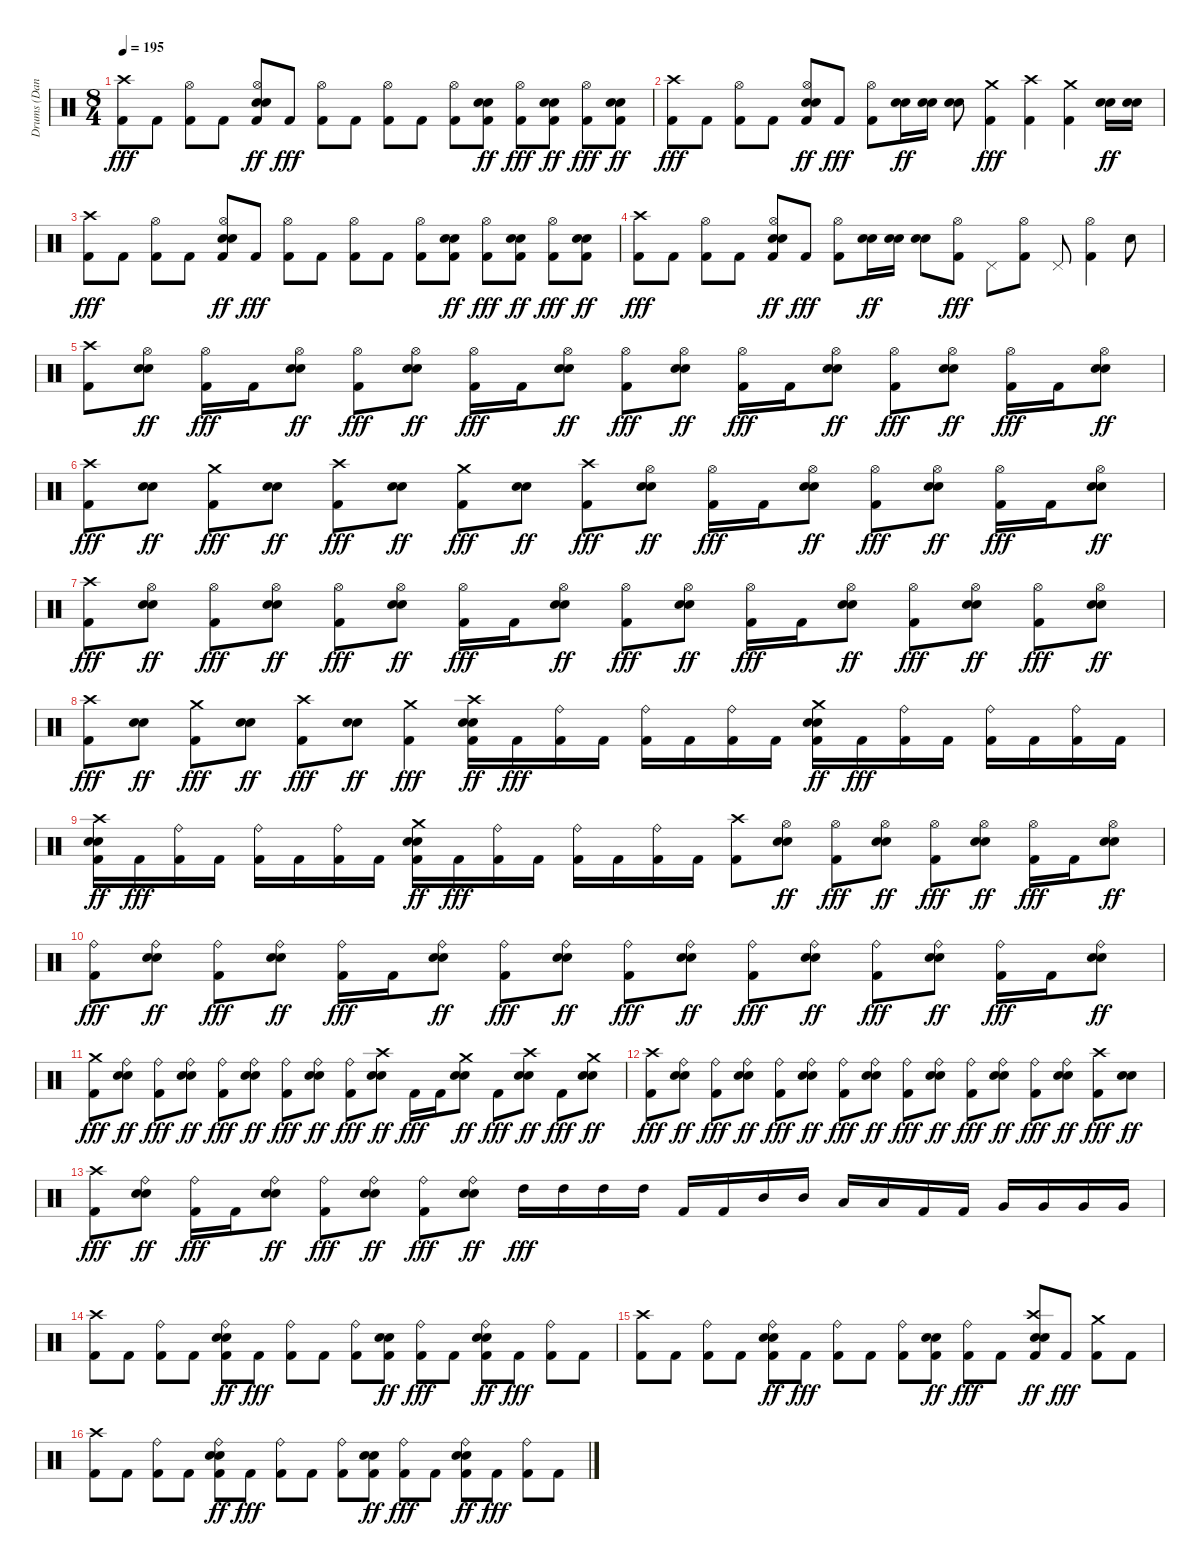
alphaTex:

\track ("Drums (Dan Zimmermann)" "Drums (Dan") {instrument percussion}
\staff {score}
\articulation defaults
\ts (8 4)
\tempo 195
\clef neutral
\ks c
("Kick (hit) 2" "Crash high (hit)").8{dy fff} "Kick (hit) 2".8 ("Kick (hit) 2" "Hi-Hat (open)").8 "Kick (hit) 2".8 ("Metronome (bell)" "Kick (hit) 2" "Hi-Hat (open)" "Snare (hit) 2").8{dy ff} "Kick (hit) 2".8{dy fff} ("Kick (hit) 2" "Hi-Hat (open)").8 "Kick (hit) 2".8 ("Kick (hit) 2" "Hi-Hat (open)").8 "Kick (hit) 2".8 ("Kick (hit) 2" "Hi-Hat (open)").8 ("Metronome (bell)" "Kick (hit) 2" "Snare (hit) 2").8{dy ff} ("Kick (hit) 2" "Hi-Hat (open)").8{dy fff} ("Metronome (bell)" "Kick (hit) 2" "Snare (hit) 2").8{dy ff} ("Kick (hit) 2" "Hi-Hat (open)").8{dy fff} ("Metronome (bell)" "Kick (hit) 2" "Snare (hit) 2").8{dy ff} |
("Kick (hit) 2" "Crash high (hit)").8{dy fff} "Kick (hit) 2".8 ("Kick (hit) 2" "Hi-Hat (open)").8 "Kick (hit) 2".8 ("Metronome (bell)" "Kick (hit) 2" "Hi-Hat (open)" "Snare (hit) 2").8{dy ff} "Kick (hit) 2".8{dy fff} ("Kick (hit) 2" "Hi-Hat (open)").8 ("Metronome (bell)" "Snare (hit) 2").16{dy ff} ("Metronome (bell)" "Snare (hit) 2").16 ("Metronome (bell)" "Snare (hit) 2").8 ("Kick (hit) 2" "Crash medium (hit)").4{dy fff} ("Kick (hit) 2" "Crash high (hit)").4 ("Kick (hit) 2" "Crash medium (hit)").4 ("Metronome (bell)" "Snare (hit) 2").16{dy ff} ("Metronome (bell)" "Snare (hit) 2").16 |
("Kick (hit) 2" "Crash high (hit)").8{dy fff} "Kick (hit) 2".8 ("Kick (hit) 2" "Hi-Hat (open)").8 "Kick (hit) 2".8 ("Metronome (bell)" "Kick (hit) 2" "Hi-Hat (open)" "Snare (hit) 2").8{dy ff} "Kick (hit) 2".8{dy fff} ("Kick (hit) 2" "Hi-Hat (open)").8 "Kick (hit) 2".8 ("Kick (hit) 2" "Hi-Hat (open)").8 "Kick (hit) 2".8 ("Kick (hit) 2" "Hi-Hat (open)").8 ("Metronome (bell)" "Kick (hit) 2" "Snare (hit) 2").8{dy ff} ("Kick (hit) 2" "Hi-Hat (open)").8{dy fff} ("Metronome (bell)" "Kick (hit) 2" "Snare (hit) 2").8{dy ff} ("Kick (hit) 2" "Hi-Hat (open)").8{dy fff} ("Metronome (bell)" "Kick (hit) 2" "Snare (hit) 2").8{dy ff} |
("Kick (hit) 2" "Crash high (hit)").8{dy fff} "Kick (hit) 2".8 ("Kick (hit) 2" "Hi-Hat (open)").8 "Kick (hit) 2".8 ("Metronome (bell)" "Kick (hit) 2" "Hi-Hat (open)" "Snare (hit) 2").8{dy ff} "Kick (hit) 2".8{dy fff} ("Kick (hit) 2" "Hi-Hat (open)").8 ("Metronome (bell)" "Snare (hit) 2").16{dy ff} ("Metronome (bell)" "Snare (hit) 2").16 ("Metronome (bell)" "Snare (hit) 2").8 ("Kick (hit) 2" "Hi-Hat (open)").8{dy fff} "Pedal Hi-Hat (hit)".8 ("Kick (hit) 2" "Hi-Hat (open)").8 "Pedal Hi-Hat (hit)".8 ("Kick (hit) 2" "Hi-Hat (open)").4 "Metronome (bell)".8 |
("Kick (hit) 2" "Crash high (hit)").8 ("Metronome (bell)" "Hi-Hat (open)" "Snare (hit) 2").8{dy ff} ("Kick (hit) 2" "Hi-Hat (open)").16{dy fff} "Kick (hit) 2".16 ("Metronome (bell)" "Hi-Hat (open)" "Snare (hit) 2").8{dy ff} ("Kick (hit) 2" "Hi-Hat (open)").8{dy fff} ("Metronome (bell)" "Hi-Hat (open)" "Snare (hit) 2").8{dy ff} ("Kick (hit) 2" "Hi-Hat (open)").16{dy fff} "Kick (hit) 2".16 ("Metronome (bell)" "Hi-Hat (open)" "Snare (hit) 2").8{dy ff} ("Kick (hit) 2" "Hi-Hat (open)").8{dy fff} ("Metronome (bell)" "Hi-Hat (open)" "Snare (hit) 2").8{dy ff} ("Kick (hit) 2" "Hi-Hat (open)").16{dy fff} "Kick (hit) 2".16 ("Metronome (bell)" "Hi-Hat (open)" "Snare (hit) 2").8{dy ff} ("Kick (hit) 2" "Hi-Hat (open)").8{dy fff} ("Metronome (bell)" "Hi-Hat (open)" "Snare (hit) 2").8{dy ff} ("Kick (hit) 2" "Hi-Hat (open)").16{dy fff} "Kick (hit) 2".16 ("Metronome (bell)" "Hi-Hat (open)" "Snare (hit) 2").8{dy ff} |
("Kick (hit) 2" "Crash high (hit)").8{dy fff} ("Metronome (bell)" "Snare (hit) 2").8{dy ff} ("Kick (hit) 2" "Crash medium (hit)").8{dy fff} ("Metronome (bell)" "Snare (hit) 2").8{dy ff} ("Kick (hit) 2" "Crash high (hit)").8{dy fff} ("Metronome (bell)" "Snare (hit) 2").8{dy ff} ("Kick (hit) 2" "Crash medium (hit)").8{dy fff} ("Metronome (bell)" "Snare (hit) 2").8{dy ff} ("Kick (hit) 2" "Crash high (hit)").8{dy fff} ("Metronome (bell)" "Hi-Hat (open)" "Snare (hit) 2").8{dy ff} ("Kick (hit) 2" "Hi-Hat (open)").16{dy fff} "Kick (hit) 2".16 ("Metronome (bell)" "Hi-Hat (open)" "Snare (hit) 2").8{dy ff} ("Kick (hit) 2" "Hi-Hat (open)").8{dy fff} ("Metronome (bell)" "Hi-Hat (open)" "Snare (hit) 2").8{dy ff} ("Kick (hit) 2" "Hi-Hat (open)").16{dy fff} "Kick (hit) 2".16 ("Metronome (bell)" "Hi-Hat (open)" "Snare (hit) 2").8{dy ff} |
("Kick (hit) 2" "Crash high (hit)").8{dy fff} ("Metronome (bell)" "Hi-Hat (open)" "Snare (hit) 2").8{dy ff} ("Kick (hit) 2" "Hi-Hat (open)").8{dy fff} ("Metronome (bell)" "Hi-Hat (open)" "Snare (hit) 2").8{dy ff} ("Kick (hit) 2" "Hi-Hat (open)").8{dy fff} ("Metronome (bell)" "Hi-Hat (open)" "Snare (hit) 2").8{dy ff} ("Kick (hit) 2" "Hi-Hat (open)").16{dy fff} "Kick (hit) 2".16 ("Metronome (bell)" "Hi-Hat (open)" "Snare (hit) 2").8{dy ff} ("Kick (hit) 2" "Hi-Hat (open)").8{dy fff} ("Metronome (bell)" "Hi-Hat (open)" "Snare (hit) 2").8{dy ff} ("Kick (hit) 2" "Hi-Hat (open)").16{dy fff} "Kick (hit) 2".16 ("Metronome (bell)" "Hi-Hat (open)" "Snare (hit) 2").8{dy ff} ("Kick (hit) 2" "Hi-Hat (open)").8{dy fff} ("Metronome (bell)" "Hi-Hat (open)" "Snare (hit) 2").8{dy ff} ("Kick (hit) 2" "Hi-Hat (open)").8{dy fff} ("Metronome (bell)" "Hi-Hat (open)" "Snare (hit) 2").8{dy ff} |
("Kick (hit) 2" "Crash high (hit)").8{dy fff} ("Metronome (bell)" "Snare (hit) 2").8{dy ff} ("Kick (hit) 2" "Crash medium (hit)").8{dy fff} ("Metronome (bell)" "Snare (hit) 2").8{dy ff} ("Kick (hit) 2" "Crash high (hit)").8{dy fff} ("Metronome (bell)" "Snare (hit) 2").8{dy ff} ("Kick (hit) 2" "Crash medium (hit)").4{dy fff} ("Metronome (bell)" "Kick (hit) 2" "Crash high (hit)" "Snare (hit) 2").16{dy ff} "Kick (hit) 2".16{dy fff} ("Kick (hit) 2" "Ride (bell)").16 "Kick (hit) 2".16 ("Kick (hit) 2" "Ride (bell)").16 "Kick (hit) 2".16 ("Kick (hit) 2" "Ride (bell)").16 "Kick (hit) 2".16 ("Metronome (bell)" "Kick (hit) 2" "Crash medium (hit)" "Snare (hit) 2").16{dy ff} "Kick (hit) 2".16{dy fff} ("Kick (hit) 2" "Ride (bell)").16 "Kick (hit) 2".16 ("Kick (hit) 2" "Ride (bell)").16 "Kick (hit) 2".16 ("Kick (hit) 2" "Ride (bell)").16 "Kick (hit) 2".16 |
("Metronome (bell)" "Kick (hit) 2" "Crash high (hit)" "Snare (hit) 2").16{dy ff} "Kick (hit) 2".16{dy fff} ("Kick (hit) 2" "Ride (bell)").16 "Kick (hit) 2".16 ("Kick (hit) 2" "Ride (bell)").16 "Kick (hit) 2".16 ("Kick (hit) 2" "Ride (bell)").16 "Kick (hit) 2".16 ("Metronome (bell)" "Kick (hit) 2" "Crash medium (hit)" "Snare (hit) 2").16{dy ff} "Kick (hit) 2".16{dy fff} ("Kick (hit) 2" "Ride (bell)").16 "Kick (hit) 2".16 ("Kick (hit) 2" "Ride (bell)").16 "Kick (hit) 2".16 ("Kick (hit) 2" "Ride (bell)").16 "Kick (hit) 2".16 ("Kick (hit) 2" "Crash high (hit)").8 ("Metronome (bell)" "Hi-Hat (open)" "Snare (hit) 2").8{dy ff} ("Kick (hit) 2" "Hi-Hat (open)").8{dy fff} ("Metronome (bell)" "Hi-Hat (open)" "Snare (hit) 2").8{dy ff} ("Kick (hit) 2" "Hi-Hat (open)").8{dy fff} ("Metronome (bell)" "Hi-Hat (open)" "Snare (hit) 2").8{dy ff} ("Kick (hit) 2" "Hi-Hat (open)").16{dy fff} "Kick (hit) 2".16 ("Metronome (bell)" "Hi-Hat (open)" "Snare (hit) 2").8{dy ff} |
("Kick (hit) 2" "Ride (bell)").8{dy fff} ("Metronome (bell)" "Ride (bell)" "Snare (hit) 2").8{dy ff} ("Kick (hit) 2" "Ride (bell)").8{dy fff} ("Metronome (bell)" "Ride (bell)" "Snare (hit) 2").8{dy ff} ("Kick (hit) 2" "Ride (bell)").16{dy fff} "Kick (hit) 2".16 ("Metronome (bell)" "Ride (bell)" "Snare (hit) 2").8{dy ff} ("Kick (hit) 2" "Ride (bell)").8{dy fff} ("Metronome (bell)" "Ride (bell)" "Snare (hit) 2").8{dy ff} ("Kick (hit) 2" "Ride (bell)").8{dy fff} ("Metronome (bell)" "Ride (bell)" "Snare (hit) 2").8{dy ff} ("Kick (hit) 2" "Ride (bell)").8{dy fff} ("Metronome (bell)" "Ride (bell)" "Snare (hit) 2").8{dy ff} ("Kick (hit) 2" "Ride (bell)").8{dy fff} ("Metronome (bell)" "Ride (bell)" "Snare (hit) 2").8{dy ff} ("Kick (hit) 2" "Ride (bell)").16{dy fff} "Kick (hit) 2".16 ("Metronome (bell)" "Ride (bell)" "Snare (hit) 2").8{dy ff} |
("Kick (hit) 2" "Crash medium (hit)").8{dy fff} ("Metronome (bell)" "Ride (bell)" "Snare (hit) 2").8{dy ff} ("Kick (hit) 2" "Ride (bell)").8{dy fff} ("Metronome (bell)" "Ride (bell)" "Snare (hit) 2").8{dy ff} ("Kick (hit) 2" "Ride (bell)").8{dy fff} ("Metronome (bell)" "Ride (bell)" "Snare (hit) 2").8{dy ff} ("Kick (hit) 2" "Ride (bell)").8{dy fff} ("Metronome (bell)" "Ride (bell)" "Snare (hit) 2").8{dy ff} ("Kick (hit) 2" "Ride (bell)").8{dy fff} ("Metronome (bell)" "Crash high (hit)" "Snare (hit) 2").8{dy ff} "Kick (hit) 2".16{dy fff} "Kick (hit) 2".16 ("Metronome (bell)" "Crash medium (hit)" "Snare (hit) 2").8{dy ff} "Kick (hit) 2".8{dy fff} ("Metronome (bell)" "Crash high (hit)" "Snare (hit) 2").8{dy ff} "Kick (hit) 2".8{dy fff} ("Metronome (bell)" "Crash medium (hit)" "Snare (hit) 2").8{dy ff} |
("Kick (hit) 2" "Crash high (hit)").8{dy fff} ("Metronome (bell)" "Ride (bell)" "Snare (hit) 2").8{dy ff} ("Kick (hit) 2" "Ride (bell)").8{dy fff} ("Metronome (bell)" "Ride (bell)" "Snare (hit) 2").8{dy ff} ("Kick (hit) 2" "Ride (bell)").8{dy fff} ("Metronome (bell)" "Ride (bell)" "Snare (hit) 2").8{dy ff} ("Kick (hit) 2" "Ride (bell)").8{dy fff} ("Metronome (bell)" "Ride (bell)" "Snare (hit) 2").8{dy ff} ("Kick (hit) 2" "Ride (bell)").8{dy fff} ("Metronome (bell)" "Ride (bell)" "Snare (hit) 2").8{dy ff} ("Kick (hit) 2" "Ride (bell)").8{dy fff} ("Metronome (bell)" "Ride (bell)" "Snare (hit) 2").8{dy ff} ("Kick (hit) 2" "Ride (bell)").8{dy fff} ("Metronome (bell)" "Ride (bell)" "Snare (hit) 2").8{dy ff} ("Kick (hit) 2" "Crash high (hit)").8{dy fff} ("Metronome (bell)" "Snare (hit) 2").8{dy ff} |
("Kick (hit) 2" "Crash high (hit)").8{dy fff} ("Metronome (bell)" "Ride (bell)" "Snare (hit) 2").8{dy ff} ("Kick (hit) 2" "Ride (bell)").16{dy fff} "Kick (hit) 2".16 ("Metronome (bell)" "Ride (bell)" "Snare (hit) 2").8{dy ff} ("Kick (hit) 2" "Ride (bell)").8{dy fff} ("Metronome (bell)" "Ride (bell)" "Snare (hit) 2").8{dy ff} ("Kick (hit) 2" "Ride (bell)").8{dy fff} ("Metronome (bell)" "Ride (bell)" "Snare (hit) 2").8{dy ff} "High Tom (hit)".16{dy fff} "High Tom (hit)".16 "High Tom (hit)".16 "High Tom (hit)".16 "Kick (hit) 2".16 "Kick (hit) 2".16 "Mid Tom (hit)".16 "Mid Tom (hit)".16 "Low Tom (hit)".16 "Low Tom (hit)".16 "Kick (hit) 2".16 "Kick (hit) 2".16 "Very Low Tom (hit)".16 "Very Low Tom (hit)".16 "Very Low Tom (hit)".16 "Very Low Tom (hit)".16 |
("Kick (hit) 2" "Crash high (hit)").8 "Kick (hit) 2".8 ("Kick (hit) 2" "Ride (bell)").8 "Kick (hit) 2".8 ("Metronome (bell)" "Kick (hit) 2" "Ride (bell)" "Snare (hit) 2").8{dy ff} "Kick (hit) 2".8{dy fff} ("Kick (hit) 2" "Ride (bell)").8 "Kick (hit) 2".8 ("Kick (hit) 2" "Ride (bell)").8 ("Metronome (bell)" "Kick (hit) 2" "Snare (hit) 2").8{dy ff} ("Kick (hit) 2" "Ride (bell)").8{dy fff} "Kick (hit) 2".8 ("Metronome (bell)" "Kick (hit) 2" "Ride (bell)" "Snare (hit) 2").8{dy ff} "Kick (hit) 2".8{dy fff} ("Kick (hit) 2" "Ride (bell)").8 "Kick (hit) 2".8 |
("Kick (hit) 2" "Crash high (hit)").8 "Kick (hit) 2".8 ("Kick (hit) 2" "Ride (bell)").8 "Kick (hit) 2".8 ("Metronome (bell)" "Kick (hit) 2" "Ride (bell)" "Snare (hit) 2").8{dy ff} "Kick (hit) 2".8{dy fff} ("Kick (hit) 2" "Ride (bell)").8 "Kick (hit) 2".8 ("Kick (hit) 2" "Ride (bell)").8 ("Metronome (bell)" "Kick (hit) 2" "Snare (hit) 2").8{dy ff} ("Kick (hit) 2" "Ride (bell)").8{dy fff} "Kick (hit) 2".8 ("Metronome (bell)" "Kick (hit) 2" "Crash high (hit)" "Snare (hit) 2").8{dy ff} "Kick (hit) 2".8{dy fff} ("Kick (hit) 2" "Crash medium (hit)").8 "Kick (hit) 2".8 |
("Kick (hit) 2" "Crash high (hit)").8 "Kick (hit) 2".8 ("Kick (hit) 2" "Ride (bell)").8 "Kick (hit) 2".8 ("Metronome (bell)" "Kick (hit) 2" "Ride (bell)" "Snare (hit) 2").8{dy ff} "Kick (hit) 2".8{dy fff} ("Kick (hit) 2" "Ride (bell)").8 "Kick (hit) 2".8 ("Kick (hit) 2" "Ride (bell)").8 ("Metronome (bell)" "Kick (hit) 2" "Snare (hit) 2").8{dy ff} ("Kick (hit) 2" "Ride (bell)").8{dy fff} "Kick (hit) 2".8 ("Metronome (bell)" "Kick (hit) 2" "Ride (bell)" "Snare (hit) 2").8{dy ff} "Kick (hit) 2".8{dy fff} ("Kick (hit) 2" "Ride (bell)").8 "Kick (hit) 2".8
